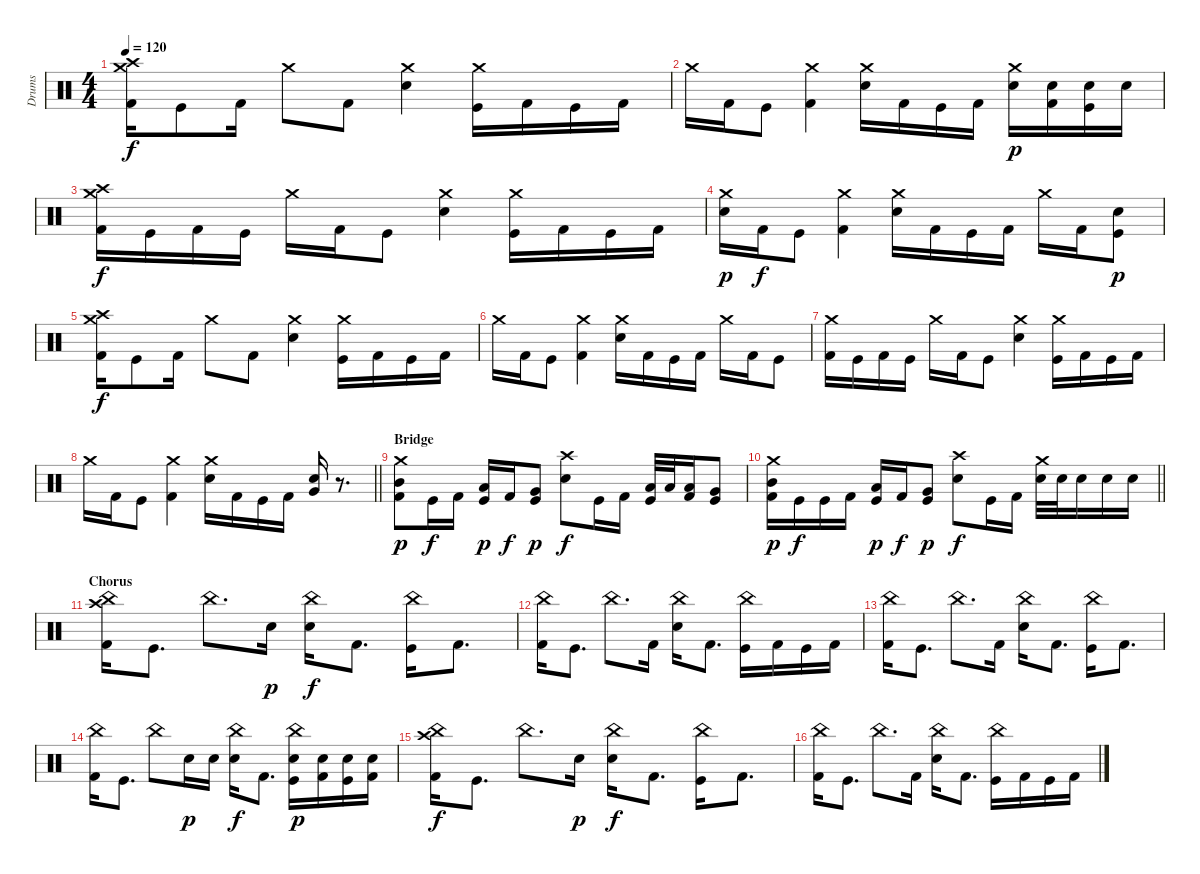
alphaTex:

\track ("Drums" "Drums") {instrument percussion}
\staff {score}
\articulation defaults
\ts (4 4)
\tempo 120
\clef neutral
\ks c
("Crash medium (hit)" "Crash high (hit)" "Kick (hit) 2").16{dy f} "Kick (hit)".8 "Kick (hit) 2".16 "Crash medium (hit)".8 "Kick (hit) 2".8 ("Crash medium (hit)" "Electric Snare (hit)").4 ("Crash medium (hit)" "Kick (hit)").16 "Kick (hit) 2".16 "Kick (hit)".16 "Kick (hit) 2".16 |
"Crash medium (hit)".16 "Kick (hit) 2".16 "Kick (hit)".8 ("Crash medium (hit)" "Kick (hit) 2").4 ("Crash medium (hit)" "Electric Snare (hit)").16 "Kick (hit) 2".16 "Kick (hit)".16 "Kick (hit) 2".16 ("Crash medium (hit)" "Electric Snare (hit)").16{dy p} ("Electric Snare (hit)" "Kick (hit) 2").16 ("Electric Snare (hit)" "Kick (hit)").16 "Electric Snare (hit)".16 |
("Crash medium (hit)" "Crash high (hit)" "Kick (hit) 2").16{dy f} "Kick (hit)".16 "Kick (hit) 2".16 "Kick (hit)".16 "Crash medium (hit)".16 "Kick (hit) 2".16 "Kick (hit)".8 ("Crash medium (hit)" "Electric Snare (hit)").4 ("Crash medium (hit)" "Kick (hit)").16 "Kick (hit) 2".16 "Kick (hit)".16 "Kick (hit) 2".16 |
("Crash medium (hit)" "Electric Snare (hit)").16{dy p} "Kick (hit) 2".16{dy f} "Kick (hit)".8 ("Crash medium (hit)" "Kick (hit) 2").4 ("Crash medium (hit)" "Electric Snare (hit)").16 "Kick (hit) 2".16 "Kick (hit)".16 "Kick (hit) 2".16 "Crash medium (hit)".16 "Kick (hit) 2".16 ("Electric Snare (hit)" "Kick (hit)").8{dy p} |
("Crash medium (hit)" "Crash high (hit)" "Kick (hit) 2").16{dy f} "Kick (hit)".8 "Kick (hit) 2".16 "Crash medium (hit)".8 "Kick (hit) 2".8 ("Crash medium (hit)" "Electric Snare (hit)").4 ("Crash medium (hit)" "Kick (hit)").16 "Kick (hit) 2".16 "Kick (hit)".16 "Kick (hit) 2".16 |
"Crash medium (hit)".16 "Kick (hit) 2".16 "Kick (hit)".8 ("Crash medium (hit)" "Kick (hit) 2").4 ("Crash medium (hit)" "Electric Snare (hit)").16 "Kick (hit) 2".16 "Kick (hit)".16 "Kick (hit) 2".16 "Crash medium (hit)".16 "Kick (hit) 2".16 "Kick (hit)".8 |
("Crash medium (hit)" "Kick (hit) 2").16 "Kick (hit)".16 "Kick (hit) 2".16 "Kick (hit)".16 "Crash medium (hit)".16 "Kick (hit) 2".16 "Kick (hit)".8 ("Crash medium (hit)" "Electric Snare (hit)").4 ("Crash medium (hit)" "Kick (hit)").16 "Kick (hit) 2".16 "Kick (hit)".16 "Kick (hit) 2".16 |
\barLineRight lightlight "Crash medium (hit)".16 "Kick (hit) 2".16 "Kick (hit)".8
("Crash medium (hit)" "Kick (hit) 2").4 ("Crash medium (hit)" "Electric Snare (hit)").16 "Kick (hit) 2".16 "Kick (hit)".16 "Kick (hit) 2".16 ("Electric Snare (hit)" "Very Low Tom (hit)").16 r.8{d} |
\section ("" "Bridge")
("Crash medium (hit)" "Mid Tom (hit)" "Kick (hit) 2").8{dy p} "Kick (hit)".16{dy f} "Kick (hit) 2".16 ("Low Tom (hit)" "Kick (hit)").16{dy p} "Kick (hit) 2".16{dy f} ("Very Low Tom (hit)" "Kick (hit)").8{dy p} ("Crash high (hit)" "Electric Snare (hit)").8{dy f} "Kick (hit)".16 "Kick (hit) 2".16 ("Low Tom (hit)" "Kick (hit)").32 "Low Tom (hit)".32 ("Low Tom (hit)" "Kick (hit) 2").16 ("Very Low Tom (hit)" "Kick (hit)").8 |
\barLineRight lightlight
("Crash medium (hit)" "Mid Tom (hit)" "Kick (hit) 2").16{dy p} "Kick (hit)".16{dy f} "Kick (hit)".16 "Kick (hit) 2".16 ("Low Tom (hit)" "Kick (hit)").16{dy p} "Kick (hit) 2".16{dy f} ("Very Low Tom (hit)" "Kick (hit)").8{dy p} ("Crash high (hit)" "Electric Snare (hit)").8{dy f} "Kick (hit)".16 "Kick (hit) 2".16 ("Crash medium (hit)" "Electric Snare (hit)").32 "Electric Snare (hit)".32 "Electric Snare (hit)".16 "Electric Snare (hit)".16 "Electric Snare (hit)".16 |
\section ("" "Chorus")
("China (hit)" "Crash high (hit)" "Kick (hit) 2").16 "Kick (hit)".8{d} "China (hit)".8{d} "Electric Snare (hit)".16{dy p} ("China (hit)" "Electric Snare (hit)").16{dy f} "Kick (hit) 2".8{d} ("China (hit)" "Kick (hit)").16 "Kick (hit) 2".8{d} |
("China (hit)" "Kick (hit) 2").16 "Kick (hit)".8{d} "China (hit)".8{d} "Kick (hit) 2".16 ("China (hit)" "Electric Snare (hit)").16 "Kick (hit) 2".8{d} ("China (hit)" "Kick (hit)").16 "Kick (hit) 2".16 "Kick (hit)".16 "Kick (hit) 2".16 |
("China (hit)" "Kick (hit) 2").16 "Kick (hit)".8{d} "China (hit)".8{d} "Kick (hit) 2".16 ("China (hit)" "Electric Snare (hit)").16 "Kick (hit) 2".8{d} ("China (hit)" "Kick (hit)").16 "Kick (hit) 2".8{d} |
("China (hit)" "Kick (hit) 2").16 "Kick (hit)".8{d} "China (hit)".8 "Electric Snare (hit)".16{dy p} "Electric Snare (hit)".16 ("China (hit)" "Electric Snare (hit)").16{dy f} "Kick (hit) 2".8{d} ("China (hit)" "Electric Snare (hit)" "Kick (hit)").16{dy p} ("Electric Snare (hit)" "Kick (hit) 2").16 ("Electric Snare (hit)" "Kick (hit)").16 ("Electric Snare (hit)" "Kick (hit) 2").16 |
("China (hit)" "Crash high (hit)" "Kick (hit) 2").16{dy f} "Kick (hit)".8{d} "China (hit)".8{d} "Electric Snare (hit)".16{dy p} ("China (hit)" "Electric Snare (hit)").16{dy f} "Kick (hit) 2".8{d} ("China (hit)" "Kick (hit)").16 "Kick (hit) 2".8{d} |
("China (hit)" "Kick (hit) 2").16 "Kick (hit)".8{d} "China (hit)".8{d} "Kick (hit) 2".16 ("China (hit)" "Electric Snare (hit)").16 "Kick (hit) 2".8{d} ("China (hit)" "Kick (hit)").16 "Kick (hit) 2".16 "Kick (hit)".16 "Kick (hit) 2".16
